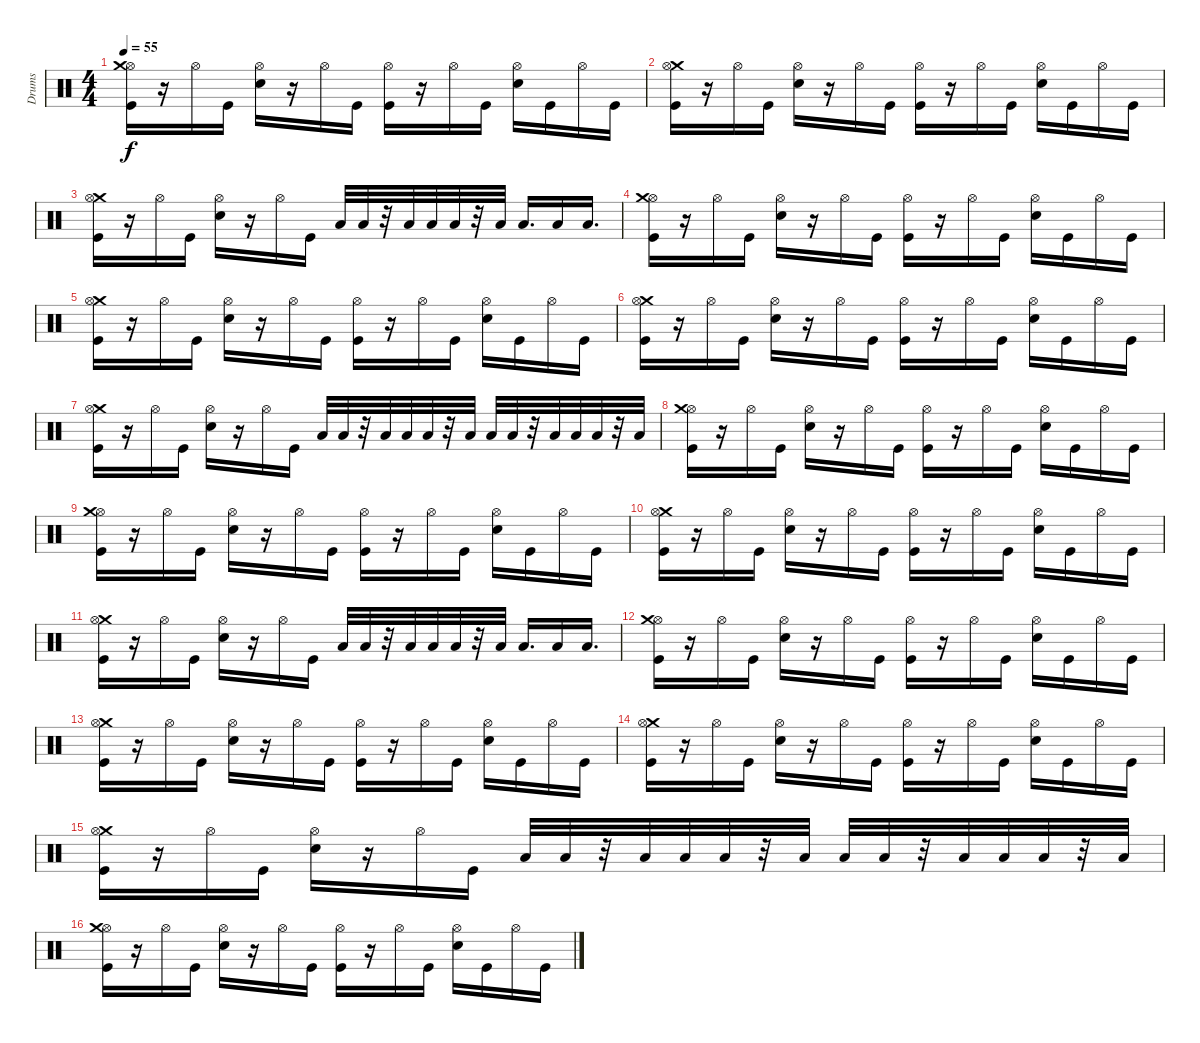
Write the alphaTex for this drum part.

\track ("Drums" "Drums") {instrument percussion}
\staff {score}
\articulation defaults
\ts (4 4)
\tempo 55
\clef neutral
\ks c
("Hi-Hat (open)" "Crash medium (hit)" "Kick (hit)").16{dy f} r.16 "Hi-Hat (open)".16 "Kick (hit)".16 ("Electric Snare (hit)" "Hi-Hat (open)").16 r.16 "Hi-Hat (open)".16 "Kick (hit)".16 ("Hi-Hat (open)" "Kick (hit)").16 r.16 "Hi-Hat (open)".16 "Kick (hit)".16 ("Hi-Hat (open)" "Electric Snare (hit)").16 "Kick (hit)".16 "Hi-Hat (open)".16 "Kick (hit)".16 |
("Crash medium (hit)" "Hi-Hat (open)" "Kick (hit)").16 r.16 "Hi-Hat (open)".16 "Kick (hit)".16 ("Electric Snare (hit)" "Hi-Hat (open)").16 r.16 "Hi-Hat (open)".16 "Kick (hit)".16 ("Kick (hit)" "Hi-Hat (open)").16 r.16 "Hi-Hat (open)".16 "Kick (hit)".16 ("Electric Snare (hit)" "Hi-Hat (open)").16 "Kick (hit)".16 "Hi-Hat (open)".16 "Kick (hit)".16 |
("Kick (hit)" "Crash medium (hit)" "Hi-Hat (open)").16 r.16 "Hi-Hat (open)".16 "Kick (hit)".16 ("Electric Snare (hit)" "Hi-Hat (open)").16 r.16 "Hi-Hat (open)".16 "Kick (hit)".16 "Low Tom (hit)".32 "Low Tom (hit)".32 r.32 "Low Tom (hit)".32 "Low Tom (hit)".32 "Low Tom (hit)".32 r.32 "Low Tom (hit)".32 "Low Tom (hit)".16{d} "Low Tom (hit)".16 "Low Tom (hit)".16{d} |
("Kick (hit)" "Hi-Hat (open)" "Crash medium (hit)").16 r.16 "Hi-Hat (open)".16 "Kick (hit)".16 ("Hi-Hat (open)" "Electric Snare (hit)").16 r.16 "Hi-Hat (open)".16 "Kick (hit)".16 ("Hi-Hat (open)" "Kick (hit)").16 r.16 "Hi-Hat (open)".16 "Kick (hit)".16 ("Electric Snare (hit)" "Hi-Hat (open)").16 "Kick (hit)".16 "Hi-Hat (open)".16 "Kick (hit)".16 |
("Crash medium (hit)" "Hi-Hat (open)" "Kick (hit)").16 r.16 "Hi-Hat (open)".16 "Kick (hit)".16 ("Electric Snare (hit)" "Hi-Hat (open)").16 r.16 "Hi-Hat (open)".16 "Kick (hit)".16 ("Kick (hit)" "Hi-Hat (open)").16 r.16 "Hi-Hat (open)".16 "Kick (hit)".16 ("Hi-Hat (open)" "Electric Snare (hit)").16 "Kick (hit)".16 "Hi-Hat (open)".16 "Kick (hit)".16 |
("Crash medium (hit)" "Hi-Hat (open)" "Kick (hit)").16 r.16 "Hi-Hat (open)".16 "Kick (hit)".16 ("Hi-Hat (open)" "Electric Snare (hit)").16 r.16 "Hi-Hat (open)".16 "Kick (hit)".16 ("Hi-Hat (open)" "Kick (hit)").16 r.16 "Hi-Hat (open)".16 "Kick (hit)".16 ("Electric Snare (hit)" "Hi-Hat (open)").16 "Kick (hit)".16 "Hi-Hat (open)".16 "Kick (hit)".16 |
("Crash medium (hit)" "Kick (hit)" "Hi-Hat (open)").16 r.16 "Hi-Hat (open)".16 "Kick (hit)".16 ("Hi-Hat (open)" "Electric Snare (hit)").16 r.16 "Hi-Hat (open)".16 "Kick (hit)".16 "Low Floor Tom (hit)".32 "Low Tom (hit)".32 r.32 "Low Tom (hit)".32 "Low Tom (hit)".32 "Low Tom (hit)".32 r.32 "Low Tom (hit)".32 "Low Floor Tom (hit)".32 "Low Tom (hit)".32 r.32 "Low Tom (hit)".32 "Low Tom (hit)".32 "Low Tom (hit)".32 r.32 "Low Tom (hit)".32 |
("Kick (hit)" "Hi-Hat (open)" "Crash medium (hit)").16 r.16 "Hi-Hat (open)".16 "Kick (hit)".16 ("Hi-Hat (open)" "Electric Snare (hit)").16 r.16 "Hi-Hat (open)".16 "Kick (hit)".16 ("Kick (hit)" "Hi-Hat (open)").16 r.16 "Hi-Hat (open)".16 "Kick (hit)".16 ("Electric Snare (hit)" "Hi-Hat (open)").16 "Kick (hit)".16 "Hi-Hat (open)".16 "Kick (hit)".16 |
("Hi-Hat (open)" "Crash medium (hit)" "Kick (hit)").16 r.16 "Hi-Hat (open)".16 "Kick (hit)".16 ("Electric Snare (hit)" "Hi-Hat (open)").16 r.16 "Hi-Hat (open)".16 "Kick (hit)".16 ("Hi-Hat (open)" "Kick (hit)").16 r.16 "Hi-Hat (open)".16 "Kick (hit)".16 ("Hi-Hat (open)" "Electric Snare (hit)").16 "Kick (hit)".16 "Hi-Hat (open)".16 "Kick (hit)".16 |
("Crash medium (hit)" "Hi-Hat (open)" "Kick (hit)").16 r.16 "Hi-Hat (open)".16 "Kick (hit)".16 ("Electric Snare (hit)" "Hi-Hat (open)").16 r.16 "Hi-Hat (open)".16 "Kick (hit)".16 ("Kick (hit)" "Hi-Hat (open)").16 r.16 "Hi-Hat (open)".16 "Kick (hit)".16 ("Electric Snare (hit)" "Hi-Hat (open)").16 "Kick (hit)".16 "Hi-Hat (open)".16 "Kick (hit)".16 |
("Kick (hit)" "Crash medium (hit)" "Hi-Hat (open)").16 r.16 "Hi-Hat (open)".16 "Kick (hit)".16 ("Electric Snare (hit)" "Hi-Hat (open)").16 r.16 "Hi-Hat (open)".16 "Kick (hit)".16 "Low Tom (hit)".32 "Low Tom (hit)".32 r.32 "Low Tom (hit)".32 "Low Tom (hit)".32 "Low Tom (hit)".32 r.32 "Low Tom (hit)".32 "Low Tom (hit)".16{d} "Low Tom (hit)".16 "Low Tom (hit)".16{d} |
("Kick (hit)" "Hi-Hat (open)" "Crash medium (hit)").16 r.16 "Hi-Hat (open)".16 "Kick (hit)".16 ("Hi-Hat (open)" "Electric Snare (hit)").16 r.16 "Hi-Hat (open)".16 "Kick (hit)".16 ("Hi-Hat (open)" "Kick (hit)").16 r.16 "Hi-Hat (open)".16 "Kick (hit)".16 ("Electric Snare (hit)" "Hi-Hat (open)").16 "Kick (hit)".16 "Hi-Hat (open)".16 "Kick (hit)".16 |
("Crash medium (hit)" "Hi-Hat (open)" "Kick (hit)").16 r.16 "Hi-Hat (open)".16 "Kick (hit)".16 ("Electric Snare (hit)" "Hi-Hat (open)").16 r.16 "Hi-Hat (open)".16 "Kick (hit)".16 ("Kick (hit)" "Hi-Hat (open)").16 r.16 "Hi-Hat (open)".16 "Kick (hit)".16 ("Hi-Hat (open)" "Electric Snare (hit)").16 "Kick (hit)".16 "Hi-Hat (open)".16 "Kick (hit)".16 |
("Crash medium (hit)" "Hi-Hat (open)" "Kick (hit)").16 r.16 "Hi-Hat (open)".16 "Kick (hit)".16 ("Hi-Hat (open)" "Electric Snare (hit)").16 r.16 "Hi-Hat (open)".16 "Kick (hit)".16 ("Hi-Hat (open)" "Kick (hit)").16 r.16 "Hi-Hat (open)".16 "Kick (hit)".16 ("Electric Snare (hit)" "Hi-Hat (open)").16 "Kick (hit)".16 "Hi-Hat (open)".16 "Kick (hit)".16 |
("Crash medium (hit)" "Kick (hit)" "Hi-Hat (open)").16 r.16 "Hi-Hat (open)".16 "Kick (hit)".16 ("Hi-Hat (open)" "Electric Snare (hit)").16 r.16 "Hi-Hat (open)".16 "Kick (hit)".16 "Low Floor Tom (hit)".32 "Low Tom (hit)".32 r.32 "Low Tom (hit)".32 "Low Tom (hit)".32 "Low Tom (hit)".32 r.32 "Low Tom (hit)".32 "Low Floor Tom (hit)".32 "Low Tom (hit)".32 r.32 "Low Tom (hit)".32 "Low Tom (hit)".32 "Low Tom (hit)".32 r.32 "Low Tom (hit)".32 |
("Kick (hit)" "Hi-Hat (open)" "Crash medium (hit)").16 r.16 "Hi-Hat (open)".16 "Kick (hit)".16 ("Hi-Hat (open)" "Electric Snare (hit)").16 r.16 "Hi-Hat (open)".16 "Kick (hit)".16 ("Hi-Hat (open)" "Kick (hit)").16 r.16 "Hi-Hat (open)".16 "Kick (hit)".16 ("Electric Snare (hit)" "Hi-Hat (open)").16 "Kick (hit)".16 "Hi-Hat (open)".16 "Kick (hit)".16
